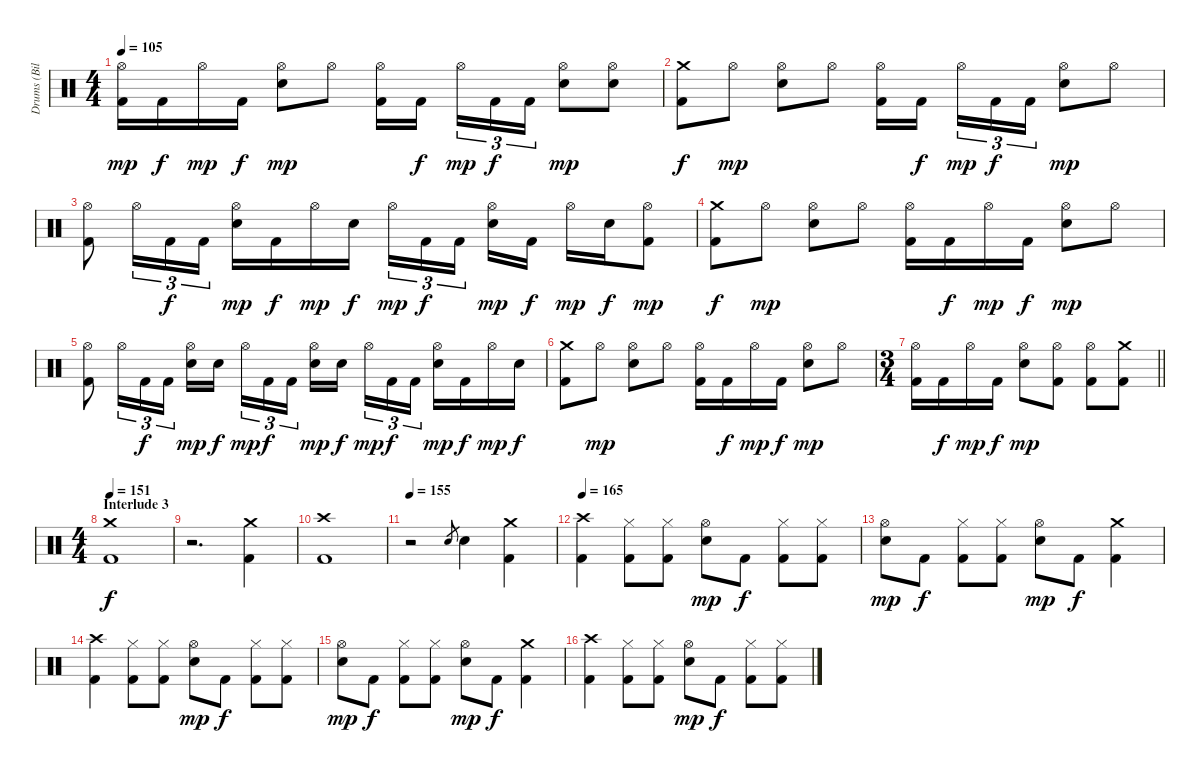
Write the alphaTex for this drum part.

\track ("Drums (Bill Andrews)" "Drums (Bil") {instrument percussion}
\staff
\articulation defaults
\ts (4 4)
\tempo 105
\clef neutral
\ks c
("Hi-Hat (open)" "Kick (hit) 2").16{dy mp} "Kick (hit) 2".16{dy f} "Hi-Hat (open)".16{dy mp} "Kick (hit) 2".16{dy f} ("Hi-Hat (open)" "Electric Snare (hit)").8{dy mp} "Hi-Hat (open)".8 ("Hi-Hat (open)" "Kick (hit) 2").16 "Kick (hit) 2".16{dy f beam splitsecondary} "Hi-Hat (open)".16{tu (3 2) dy mp} "Kick (hit) 2".16{tu (3 2) dy f} "Kick (hit) 2".16{tu (3 2)} ("Hi-Hat (open)" "Electric Snare (hit)").8{dy mp} ("Hi-Hat (open)" "Electric Snare (hit)").8 |
("Crash medium (hit)" "Kick (hit) 2").8{dy f} "Hi-Hat (open)".8{dy mp} ("Hi-Hat (open)" "Electric Snare (hit)").8 "Hi-Hat (open)".8 ("Hi-Hat (open)" "Kick (hit) 2").16 "Kick (hit) 2".16{dy f beam splitsecondary} "Hi-Hat (open)".16{tu (3 2) dy mp} "Kick (hit) 2".16{tu (3 2) dy f} "Kick (hit) 2".16{tu (3 2)} ("Hi-Hat (open)" "Electric Snare (hit)").8{dy mp} "Hi-Hat (open)".8 |
("Hi-Hat (open)" "Kick (hit) 2").8 "Hi-Hat (open)".16{tu (3 2)} "Kick (hit) 2".16{tu (3 2) dy f} "Kick (hit) 2".16{tu (3 2)} ("Hi-Hat (open)" "Electric Snare (hit)").16{dy mp} "Kick (hit) 2".16{dy f} "Hi-Hat (open)".16{dy mp} "Electric Snare (hit)".16{dy f} "Hi-Hat (open)".16{tu (3 2) dy mp} "Kick (hit) 2".16{tu (3 2) dy f} "Kick (hit) 2".16{tu (3 2) beam splitsecondary} ("Hi-Hat (open)" "Electric Snare (hit)").16{dy mp} "Kick (hit) 2".16{dy f} "Hi-Hat (open)".16{dy mp} "Electric Snare (hit)".16{dy f} ("Hi-Hat (open)" "Kick (hit) 2").8{dy mp} |
("Crash medium (hit)" "Kick (hit) 2").8{dy f} "Hi-Hat (open)".8{dy mp} ("Hi-Hat (open)" "Electric Snare (hit)").8 "Hi-Hat (open)".8 ("Hi-Hat (open)" "Kick (hit) 2").16 "Kick (hit) 2".16{dy f} "Hi-Hat (open)".16{dy mp} "Kick (hit) 2".16{dy f} ("Hi-Hat (open)" "Electric Snare (hit)").8{dy mp} "Hi-Hat (open)".8 |
("Hi-Hat (open)" "Kick (hit) 2").8 "Hi-Hat (open)".16{tu (3 2)} "Kick (hit) 2".16{tu (3 2) dy f} "Kick (hit) 2".16{tu (3 2)} ("Hi-Hat (open)" "Electric Snare (hit)").16{dy mp} "Electric Snare (hit)".16{dy f beam splitsecondary} "Hi-Hat (open)".16{tu (3 2) dy mp} "Kick (hit) 2".16{tu (3 2) dy f} "Kick (hit) 2".16{tu (3 2)} ("Hi-Hat (open)" "Electric Snare (hit)").16{dy mp} "Electric Snare (hit)".16{dy f beam splitsecondary} "Hi-Hat (open)".16{tu (3 2) dy mp} "Kick (hit) 2".16{tu (3 2) dy f} "Kick (hit) 2".16{tu (3 2)} ("Hi-Hat (open)" "Electric Snare (hit)").16{dy mp} "Kick (hit) 2".16{dy f} "Hi-Hat (open)".16{dy mp} "Electric Snare (hit)".16{dy f} |
("Crash medium (hit)" "Kick (hit) 2").8 "Hi-Hat (open)".8{dy mp} ("Hi-Hat (open)" "Electric Snare (hit)").8 "Hi-Hat (open)".8 ("Hi-Hat (open)" "Kick (hit) 2").16 "Kick (hit) 2".16{dy f} "Hi-Hat (open)".16{dy mp} "Kick (hit) 2".16{dy f} ("Hi-Hat (open)" "Electric Snare (hit)").8{dy mp} "Hi-Hat (open)".8 |
\ts (3 4)
\barLineRight lightlight
("Hi-Hat (open)" "Kick (hit) 2").16 "Kick (hit) 2".16{dy f} "Hi-Hat (open)".16{dy mp} "Kick (hit) 2".16{dy f} ("Hi-Hat (open)" "Electric Snare (hit)").8{dy mp} ("Hi-Hat (open)" "Kick (hit) 2").8 ("Hi-Hat (open)" "Kick (hit) 2").8 ("Crash medium (hit)" "Kick (hit) 2").8 |
\ts (4 4)
\section ("" "Interlude 3")
\tempo 151
("Crash medium (hit)" "Kick (hit) 2").1{dy f} |
r.2{d} ("Crash medium (hit)" "Kick (hit) 2").4 |
("Crash high (hit)" "Kick (hit) 2").1 |
\tempo 155
r.2 "Electric Snare (hit)".8{gr} "Electric Snare (hit)".4 ("Crash medium (hit)" "Kick (hit) 2").4 |
\tempo 165
("Crash high (hit)" "Kick (hit) 2").4 ("Hi-Hat (closed)" "Kick (hit) 2").8 ("Hi-Hat (closed)" "Kick (hit) 2").8 ("Hi-Hat (open)" "Electric Snare (hit)").8{dy mp} "Kick (hit) 2".8{dy f} ("Hi-Hat (closed)" "Kick (hit) 2").8 ("Hi-Hat (closed)" "Kick (hit) 2").8 |
("Hi-Hat (open)" "Electric Snare (hit)").8{dy mp} "Kick (hit) 2".8{dy f} ("Hi-Hat (closed)" "Kick (hit) 2").8 ("Hi-Hat (closed)" "Kick (hit) 2").8 ("Hi-Hat (open)" "Electric Snare (hit)").8{dy mp} "Kick (hit) 2".8{dy f} ("Crash medium (hit)" "Kick (hit) 2").4 |
("Crash high (hit)" "Kick (hit) 2").4 ("Hi-Hat (closed)" "Kick (hit) 2").8 ("Hi-Hat (closed)" "Kick (hit) 2").8 ("Hi-Hat (open)" "Electric Snare (hit)").8{dy mp} "Kick (hit) 2".8{dy f} ("Hi-Hat (closed)" "Kick (hit) 2").8 ("Hi-Hat (closed)" "Kick (hit) 2").8 |
("Hi-Hat (open)" "Electric Snare (hit)").8{dy mp} "Kick (hit) 2".8{dy f} ("Hi-Hat (closed)" "Kick (hit) 2").8 ("Hi-Hat (closed)" "Kick (hit) 2").8 ("Hi-Hat (open)" "Electric Snare (hit)").8{dy mp} "Kick (hit) 2".8{dy f} ("Crash medium (hit)" "Kick (hit) 2").4 |
("Crash high (hit)" "Kick (hit) 2").4 ("Hi-Hat (closed)" "Kick (hit) 2").8 ("Hi-Hat (closed)" "Kick (hit) 2").8 ("Hi-Hat (open)" "Electric Snare (hit)").8{dy mp} "Kick (hit) 2".8{dy f} ("Hi-Hat (closed)" "Kick (hit) 2").8 ("Hi-Hat (closed)" "Kick (hit) 2").8
